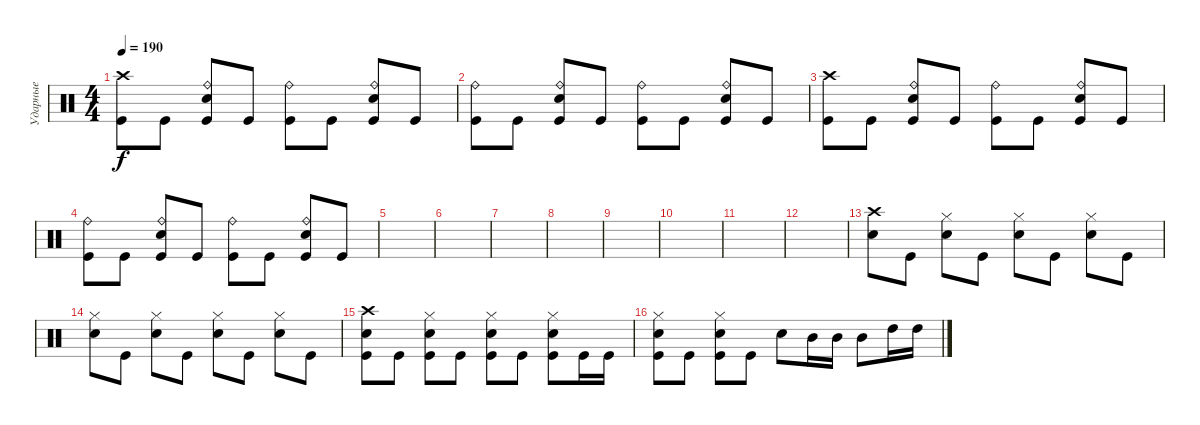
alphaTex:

\track ("Ударные" "Ударные") {instrument percussion}
\staff {score}
\articulation defaults
\ts (4 4)
\tempo 190
\clef neutral
\ks c
("Crash high (hit)" "Kick (hit)").8{dy f} "Kick (hit)".8 ("Ride (bell)" "Electric Snare (hit)" "Kick (hit)").8 "Kick (hit)".8 ("Ride (bell)" "Kick (hit)").8 "Kick (hit)".8 ("Ride (bell)" "Electric Snare (hit)" "Kick (hit)").8 "Kick (hit)".8 |
("Ride (bell)" "Kick (hit)").8 "Kick (hit)".8 ("Ride (bell)" "Electric Snare (hit)" "Kick (hit)").8 "Kick (hit)".8 ("Ride (bell)" "Kick (hit)").8 "Kick (hit)".8 ("Ride (bell)" "Electric Snare (hit)" "Kick (hit)").8 "Kick (hit)".8 |
("Crash high (hit)" "Kick (hit)").8 "Kick (hit)".8 ("Ride (bell)" "Electric Snare (hit)" "Kick (hit)").8 "Kick (hit)".8 ("Ride (bell)" "Kick (hit)").8 "Kick (hit)".8 ("Ride (bell)" "Electric Snare (hit)" "Kick (hit)").8 "Kick (hit)".8 |
("Ride (bell)" "Kick (hit)").8 "Kick (hit)".8 ("Ride (bell)" "Electric Snare (hit)" "Kick (hit)").8 "Kick (hit)".8 ("Ride (bell)" "Kick (hit)").8 "Kick (hit)".8 ("Ride (bell)" "Electric Snare (hit)" "Kick (hit)").8 "Kick (hit)".8 |
|
|
|
|
|
|
|
|
("Crash high (hit)" "Electric Snare (hit)").8 "Kick (hit)".8 ("Hi-Hat (closed)" "Electric Snare (hit)").8 "Kick (hit)".8 ("Hi-Hat (closed)" "Electric Snare (hit)").8 "Kick (hit)".8 ("Hi-Hat (closed)" "Electric Snare (hit)").8 "Kick (hit)".8 |
("Hi-Hat (closed)" "Electric Snare (hit)").8 "Kick (hit)".8 ("Hi-Hat (closed)" "Electric Snare (hit)").8 "Kick (hit)".8 ("Hi-Hat (closed)" "Electric Snare (hit)").8 "Kick (hit)".8 ("Hi-Hat (closed)" "Electric Snare (hit)").8 "Kick (hit)".8 |
("Crash high (hit)" "Electric Snare (hit)" "Kick (hit)").8 "Kick (hit)".8 ("Hi-Hat (closed)" "Electric Snare (hit)" "Kick (hit)").8 "Kick (hit)".8 ("Hi-Hat (closed)" "Electric Snare (hit)" "Kick (hit)").8 "Kick (hit)".8 ("Hi-Hat (closed)" "Electric Snare (hit)" "Kick (hit)").8 "Kick (hit)".16 "Kick (hit)".16 |
("Hi-Hat (closed)" "Electric Snare (hit)" "Kick (hit)").8 "Kick (hit)".8 ("Hi-Hat (closed)" "Electric Snare (hit)" "Kick (hit)").8 "Kick (hit)".8 "Electric Snare (hit)".8 "Mid Tom (hit)".16 "Mid Tom (hit)".16 "Mid Tom (hit)".8 "High Tom (hit)".16 "High Tom (hit)".16
